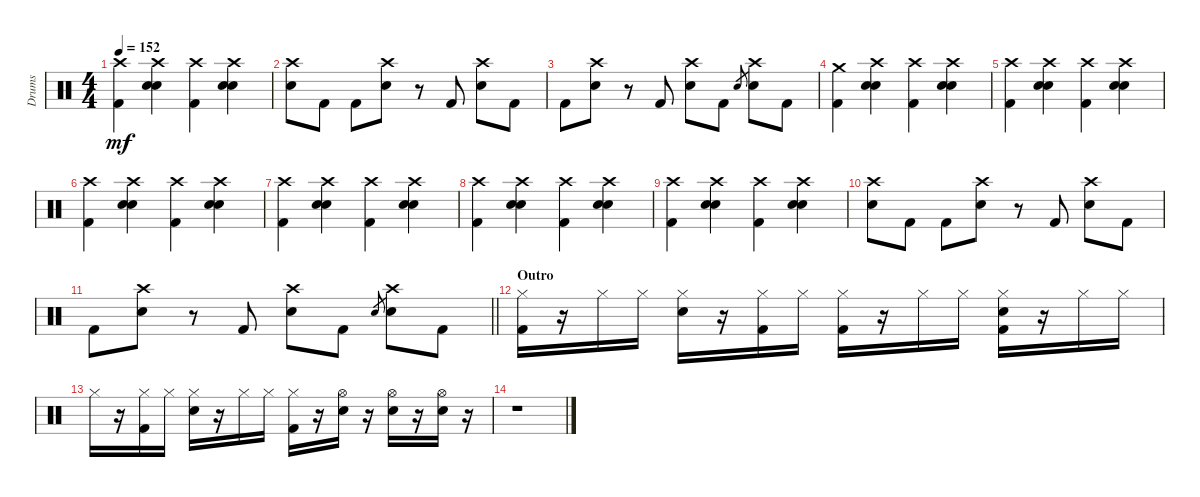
\track ("Drums" "Drums") {instrument percussion}
\staff {score}
\articulation defaults
\ts (4 4)
\tempo 152
\clef neutral
\ks c
("Crash high (hit)" "Kick (hit) 2").4{dy mf} ("Crash high (hit)" "Electric Snare (hit)" "Snare (hit) 2").4 ("Crash high (hit)" "Kick (hit) 2").4 ("Crash high (hit)" "Electric Snare (hit)" "Snare (hit) 2").4 |
("Crash high (hit)" "Snare (hit) 2").8 "Kick (hit) 2".8 "Kick (hit) 2".8 ("Crash high (hit)" "Snare (hit) 2").8 r.8 "Kick (hit) 2".8 ("Crash high (hit)" "Snare (hit) 2").8 "Kick (hit) 2".8 |
"Kick (hit) 2".8 ("Crash high (hit)" "Snare (hit) 2").8 r.8 "Kick (hit) 2".8 ("Crash high (hit)" "Snare (hit) 2").8 "Kick (hit) 2".8 "Snare (hit) 2".8{gr} ("Crash high (hit)" "Snare (hit) 2").8 "Kick (hit) 2".8 |
("Crash medium (hit)" "Kick (hit) 2").4 ("Crash high (hit)" "Electric Snare (hit)" "Snare (hit) 2").4 ("Crash high (hit)" "Kick (hit) 2").4 ("Crash high (hit)" "Electric Snare (hit)" "Snare (hit) 2").4 |
("Crash high (hit)" "Kick (hit) 2").4 ("Crash high (hit)" "Electric Snare (hit)" "Snare (hit) 2").4 ("Crash high (hit)" "Kick (hit) 2").4 ("Crash high (hit)" "Electric Snare (hit)" "Snare (hit) 2").4 |
("Crash high (hit)" "Kick (hit) 2").4 ("Crash high (hit)" "Electric Snare (hit)" "Snare (hit) 2").4 ("Crash high (hit)" "Kick (hit) 2").4 ("Crash high (hit)" "Electric Snare (hit)" "Snare (hit) 2").4 |
("Crash high (hit)" "Kick (hit) 2").4 ("Crash high (hit)" "Electric Snare (hit)" "Snare (hit) 2").4 ("Crash high (hit)" "Kick (hit) 2").4 ("Crash high (hit)" "Electric Snare (hit)" "Snare (hit) 2").4 |
("Crash high (hit)" "Kick (hit) 2").4 ("Crash high (hit)" "Electric Snare (hit)" "Snare (hit) 2").4 ("Crash high (hit)" "Kick (hit) 2").4 ("Crash high (hit)" "Electric Snare (hit)" "Snare (hit) 2").4 |
("Crash high (hit)" "Kick (hit) 2").4 ("Crash high (hit)" "Electric Snare (hit)" "Snare (hit) 2").4 ("Crash high (hit)" "Kick (hit) 2").4 ("Crash high (hit)" "Electric Snare (hit)" "Snare (hit) 2").4 |
("Crash high (hit)" "Snare (hit) 2").8 "Kick (hit) 2".8 "Kick (hit) 2".8 ("Crash high (hit)" "Snare (hit) 2").8 r.8 "Kick (hit) 2".8 ("Crash high (hit)" "Snare (hit) 2").8 "Kick (hit) 2".8 |
\barLineRight lightlight "Kick (hit) 2".8
("Crash high (hit)" "Snare (hit) 2").8 r.8 "Kick (hit) 2".8 ("Crash high (hit)" "Snare (hit) 2").8 "Kick (hit) 2".8 "Snare (hit) 2".8{gr} ("Crash high (hit)" "Snare (hit) 2").8 "Kick (hit) 2".8 |
\section ("" "Outro")
("Hi-Hat (closed)" "Kick (hit) 2").16 r.16 "Hi-Hat (closed)".16 "Hi-Hat (closed)".16 ("Hi-Hat (closed)" "Snare (hit) 2").16 r.16 ("Hi-Hat (closed)" "Kick (hit) 2").16 "Hi-Hat (closed)".16 ("Hi-Hat (closed)" "Kick (hit) 2").16 r.16 "Hi-Hat (closed)".16 "Hi-Hat (closed)".16 ("Hi-Hat (closed)" "Snare (hit) 2" "Kick (hit) 2").16 r.16 "Hi-Hat (closed)".16 "Hi-Hat (closed)".16 |
"Hi-Hat (closed)".16 r.16 ("Hi-Hat (closed)" "Kick (hit) 2").16 "Hi-Hat (closed)".16 ("Hi-Hat (closed)" "Snare (hit) 2").16 r.16 "Hi-Hat (closed)".16 "Hi-Hat (closed)".16 ("Hi-Hat (closed)" "Kick (hit) 2").16 r.16 ("Hi-Hat (open)" "Snare (hit) 2").16 r.16 ("Hi-Hat (open)" "Snare (hit) 2").16 r.16 ("Hi-Hat (open)" "Snare (hit) 2").16 r.16 |
r.1
